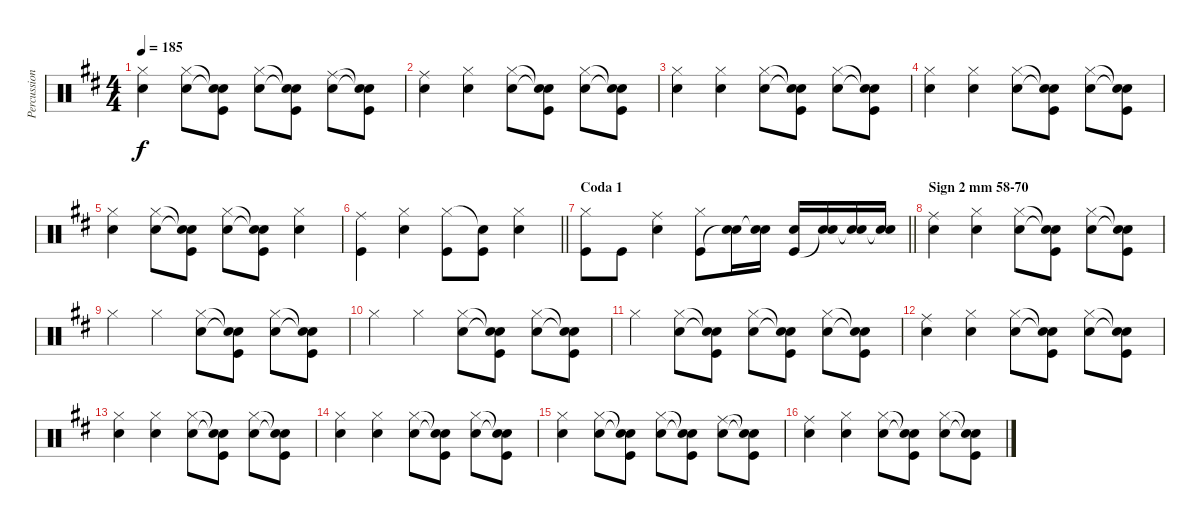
\track ("Percussion" "Percussion") {instrument percussion}
\staff {score}
\articulation defaults
\ts (4 4)
\tempo 185
\clef neutral
\ks d
("Hi-Hat (closed)" "Snare (hit) 2").4{dy f} ("Hi-Hat (closed)" "Snare (hit) 2").8 ("Snare (hit)"{t} "Snare (hit)"{t} "Kick (hit)").8 ("Hi-Hat (closed)" "Snare (hit) 2").8 ("Snare (hit)"{t} "Snare (hit)"{t} "Kick (hit)").8 ("Ride (middle)" "Snare (hit) 2").8 ("Snare (hit)"{t} "Snare (hit)"{t} "Kick (hit)").8 |
("Ride (middle)" "Snare (hit) 2").4 ("Hi-Hat (closed)" "Snare (hit) 2").4 ("Hi-Hat (closed)" "Snare (hit) 2").8 ("Snare (hit)"{t} "Snare (hit)"{t} "Kick (hit)").8 ("Hi-Hat (closed)" "Snare (hit) 2").8 ("Snare (hit)"{t} "Snare (hit)"{t} "Kick (hit)").8 |
("Hi-Hat (closed)" "Snare (hit) 2").4 ("Hi-Hat (closed)" "Snare (hit) 2").4 ("Hi-Hat (closed)" "Snare (hit) 2").8 ("Snare (hit)"{t} "Snare (hit)"{t} "Kick (hit)").8 ("Hi-Hat (closed)" "Snare (hit) 2").8 ("Snare (hit)"{t} "Snare (hit)"{t} "Kick (hit)").8 |
("Hi-Hat (closed)" "Snare (hit) 2").4 ("Hi-Hat (closed)" "Snare (hit) 2").4 ("Hi-Hat (closed)" "Snare (hit) 2").8 ("Snare (hit)"{t} "Snare (hit)"{t} "Kick (hit)").8 ("Hi-Hat (closed)" "Snare (hit) 2").8 ("Snare (hit)"{t} "Snare (hit)"{t} "Kick (hit)").8 |
("Hi-Hat (closed)" "Snare (hit) 2").4 ("Hi-Hat (closed)" "Snare (hit) 2").8 ("Snare (hit)"{t} "Snare (hit)"{t} "Kick (hit)").8 ("Hi-Hat (closed)" "Snare (hit) 2").8 ("Snare (hit)"{t} "Snare (hit)"{t} "Kick (hit)").8 ("Hi-Hat (closed)" "Snare (hit) 2").4 |
\barLineRight lightlight
("Ride (middle)" "Kick (hit)").4 ("Hi-Hat (closed)" "Snare (hit) 2").4 ("Hi-Hat (closed)" "Kick (hit)").8 ("Snare (hit)"{t} "Kick (hit)").8 ("Hi-Hat (closed)" "Snare (hit) 2").4 |
\section ("" "Coda 1")
\barLineRight lightlight
("Hi-Hat (closed)" "Kick (hit)").8 "Kick (hit)".8 ("Ride (middle)" "Snare (hit) 2").4 ("Hi-Hat (closed)" "Kick (hit)").8 ("Snare (hit) 2" "Snare (hit)"{t}).16 ("Snare (hit) 2" "Snare (hit)"{t}).16 ("Snare (hit) 2" "Kick (hit)").16 ("Snare (hit) 2" "Snare (hit)"{t}).16 ("Snare (hit) 2" "Snare (hit)"{t}).16 ("Snare (hit) 2" "Snare (hit)"{t}).16 |
\section ("" "Sign 2 mm 58-70")
("Ride (middle)" "Snare (hit) 2").4 ("Hi-Hat (closed)" "Snare (hit) 2").4 ("Hi-Hat (closed)" "Snare (hit) 2").8 ("Snare (hit)"{t} "Snare (hit)"{t} "Kick (hit)").8 ("Hi-Hat (closed)" "Snare (hit) 2").8 ("Snare (hit)"{t} "Snare (hit)"{t} "Kick (hit)").8 |
"Hi-Hat (closed)".4 "Hi-Hat (closed)".4 ("Hi-Hat (closed)" "Snare (hit) 2").8 ("Snare (hit)"{t} "Snare (hit)"{t} "Kick (hit)").8 ("Hi-Hat (closed)" "Snare (hit) 2").8 ("Snare (hit)"{t} "Snare (hit)"{t} "Kick (hit)").8 |
"Hi-Hat (closed)".4 "Hi-Hat (closed)".4 ("Hi-Hat (closed)" "Snare (hit) 2").8 ("Snare (hit)"{t} "Snare (hit)"{t} "Kick (hit)").8 ("Hi-Hat (closed)" "Snare (hit) 2").8 ("Snare (hit)"{t} "Snare (hit)"{t} "Kick (hit)").8 |
"Hi-Hat (closed)".4 ("Hi-Hat (closed)" "Snare (hit) 2").8 ("Snare (hit)"{t} "Snare (hit)"{t} "Kick (hit)").8 ("Hi-Hat (closed)" "Snare (hit) 2").8 ("Snare (hit)"{t} "Snare (hit)"{t} "Kick (hit)").8 ("Hi-Hat (closed)" "Snare (hit) 2").8 ("Snare (hit)"{t} "Snare (hit)"{t} "Kick (hit)").8 |
("Ride (middle)" "Snare (hit) 2").4 ("Hi-Hat (closed)" "Snare (hit) 2").4 ("Hi-Hat (closed)" "Snare (hit) 2").8 ("Snare (hit)"{t} "Snare (hit)"{t} "Kick (hit)").8 ("Hi-Hat (closed)" "Snare (hit) 2").8 ("Snare (hit)"{t} "Snare (hit)"{t} "Kick (hit)").8 |
("Hi-Hat (closed)" "Snare (hit) 2").4 ("Hi-Hat (closed)" "Snare (hit) 2").4 ("Hi-Hat (closed)" "Snare (hit) 2").8 ("Snare (hit)"{t} "Snare (hit)"{t} "Kick (hit)").8 ("Hi-Hat (closed)" "Snare (hit) 2").8 ("Snare (hit)"{t} "Snare (hit)"{t} "Kick (hit)").8 |
("Hi-Hat (closed)" "Snare (hit) 2").4 ("Hi-Hat (closed)" "Snare (hit) 2").4 ("Hi-Hat (closed)" "Snare (hit) 2").8 ("Snare (hit)"{t} "Snare (hit)"{t} "Kick (hit)").8 ("Hi-Hat (closed)" "Snare (hit) 2").8 ("Snare (hit)"{t} "Snare (hit)"{t} "Kick (hit)").8 |
("Hi-Hat (closed)" "Snare (hit) 2").4 ("Hi-Hat (closed)" "Snare (hit) 2").8 ("Snare (hit)"{t} "Snare (hit)"{t} "Kick (hit)").8 ("Hi-Hat (closed)" "Snare (hit) 2").8 ("Snare (hit)"{t} "Snare (hit)"{t} "Kick (hit)").8 ("Ride (middle)" "Snare (hit) 2").8 ("Snare (hit)"{t} "Snare (hit)"{t} "Kick (hit)").8 |
("Ride (middle)" "Snare (hit) 2").4 ("Hi-Hat (closed)" "Snare (hit) 2").4 ("Hi-Hat (closed)" "Snare (hit) 2").8 ("Snare (hit)"{t} "Snare (hit)"{t} "Kick (hit)").8 ("Hi-Hat (closed)" "Snare (hit) 2").8 ("Snare (hit)"{t} "Snare (hit)"{t} "Kick (hit)").8
